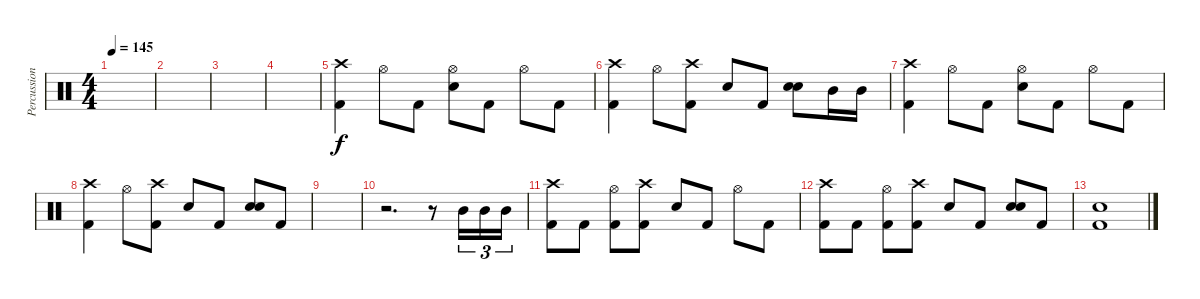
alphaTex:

\track ("Percussion" "Percussion") {instrument percussion}
\staff {score}
\articulation defaults
\ts (4 4)
\tempo 145
\clef neutral
\ks c
|
|
|
|
("Crash high (hit)" "Kick (hit) 2").4 "Hi-Hat (open)".8 "Kick (hit) 2".8 ("Hi-Hat (open)" "Snare (hit) 2").8 "Kick (hit) 2".8 "Hi-Hat (open)".8 "Kick (hit) 2".8 |
("Crash high (hit)" "Kick (hit) 2").4 "Hi-Hat (open)".8 ("Crash high (hit)" "Kick (hit) 2").8 "Snare (hit) 2".8 "Kick (hit) 2".8 ("Snare (hit) 2" "Snare (hit) 2").8{bd 240} "Mid Tom (hit)".16 "Mid Tom (hit)".16 |
("Crash high (hit)" "Kick (hit) 2").4 "Hi-Hat (open)".8 "Kick (hit) 2".8 ("Hi-Hat (open)" "Snare (hit) 2").8 "Kick (hit) 2".8 "Hi-Hat (open)".8 "Kick (hit) 2".8 |
("Crash high (hit)" "Kick (hit) 2").4 "Hi-Hat (open)".8 ("Crash high (hit)" "Kick (hit) 2").8 "Snare (hit) 2".8 "Kick (hit) 2".8 ("Snare (hit) 2" "Snare (hit) 2").8{bd 240} "Kick (hit) 2".8 |
|
r.2{d} r.8 "Mid Tom (hit)".16{tu (3 2)} "Mid Tom (hit)".16{tu (3 2)} "Mid Tom (hit)".16{tu (3 2)} |
("Crash high (hit)" "Kick (hit) 2").8 "Kick (hit) 2".8 ("Hi-Hat (open)" "Kick (hit) 2").8 ("Crash high (hit)" "Kick (hit) 2").8 "Snare (hit) 2".8 "Kick (hit) 2".8 "Hi-Hat (open)".8 "Kick (hit) 2".8 |
("Crash high (hit)" "Kick (hit) 2").8 "Kick (hit) 2".8 ("Hi-Hat (open)" "Kick (hit) 2").8 ("Crash high (hit)" "Kick (hit) 2").8 "Snare (hit) 2".8 "Kick (hit) 2".8 ("Snare (hit) 2" "Snare (hit) 2").8{bd 240} "Kick (hit) 2".8 |
("Snare (hit) 2" "Kick (hit) 2").1
